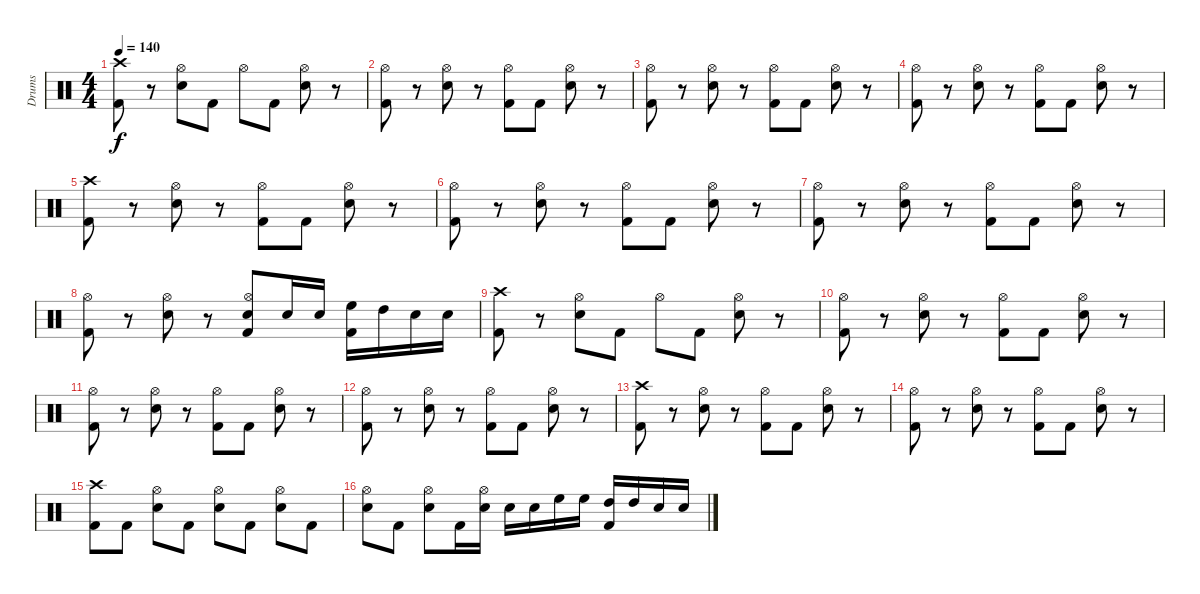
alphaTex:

\track ("Drums" "Drums") {instrument percussion}
\staff {score}
\articulation defaults
\ts (4 4)
\tempo 140
\clef neutral
\ks c
("Crash high (hit)" "Kick (hit) 2").8{dy f} r.8 ("Hi-Hat (open)" "Electric Snare (hit)").8 "Kick (hit) 2".8 "Hi-Hat (open)".8 "Kick (hit) 2".8 ("Hi-Hat (open)" "Electric Snare (hit)").8 r.8 |
("Hi-Hat (open)" "Kick (hit) 2").8 r.8 ("Hi-Hat (open)" "Electric Snare (hit)").8 r.8 ("Hi-Hat (open)" "Kick (hit) 2").8 "Kick (hit) 2".8 ("Hi-Hat (open)" "Electric Snare (hit)").8 r.8 |
("Hi-Hat (open)" "Kick (hit) 2").8 r.8 ("Hi-Hat (open)" "Electric Snare (hit)").8 r.8 ("Hi-Hat (open)" "Kick (hit) 2").8 "Kick (hit) 2".8 ("Hi-Hat (open)" "Electric Snare (hit)").8 r.8 |
("Hi-Hat (open)" "Kick (hit) 2").8 r.8 ("Hi-Hat (open)" "Electric Snare (hit)").8 r.8 ("Hi-Hat (open)" "Kick (hit) 2").8 "Kick (hit) 2".8 ("Hi-Hat (open)" "Electric Snare (hit)").8 r.8 |
("Crash high (hit)" "Kick (hit) 2").8 r.8 ("Hi-Hat (open)" "Electric Snare (hit)").8 r.8 ("Hi-Hat (open)" "Kick (hit) 2").8 "Kick (hit) 2".8 ("Hi-Hat (open)" "Electric Snare (hit)").8 r.8 |
("Hi-Hat (open)" "Kick (hit) 2").8 r.8 ("Hi-Hat (open)" "Electric Snare (hit)").8 r.8 ("Hi-Hat (open)" "Kick (hit) 2").8 "Kick (hit) 2".8 ("Hi-Hat (open)" "Electric Snare (hit)").8 r.8 |
("Hi-Hat (open)" "Kick (hit) 2").8 r.8 ("Hi-Hat (open)" "Electric Snare (hit)").8 r.8 ("Hi-Hat (open)" "Kick (hit) 2").8 "Kick (hit) 2".8 ("Hi-Hat (open)" "Electric Snare (hit)").8 r.8 |
("Hi-Hat (open)" "Kick (hit) 2").8 r.8 ("Hi-Hat (open)" "Electric Snare (hit)").8 r.8 ("Hi-Hat (open)" "Electric Snare (hit)" "Kick (hit) 2").8 "Electric Snare (hit)".16 "Electric Snare (hit)".16 ("High Floor Tom (hit)" "Kick (hit) 2").16 "High Tom (hit)".16 "Electric Snare (hit)".16 "Electric Snare (hit)".16 |
("Crash high (hit)" "Kick (hit) 2").8 r.8 ("Hi-Hat (open)" "Electric Snare (hit)").8 "Kick (hit) 2".8 "Hi-Hat (open)".8 "Kick (hit) 2".8 ("Hi-Hat (open)" "Electric Snare (hit)").8 r.8 |
("Hi-Hat (open)" "Kick (hit) 2").8 r.8 ("Hi-Hat (open)" "Electric Snare (hit)").8 r.8 ("Hi-Hat (open)" "Kick (hit) 2").8 "Kick (hit) 2".8 ("Hi-Hat (open)" "Electric Snare (hit)").8 r.8 |
("Hi-Hat (open)" "Kick (hit) 2").8 r.8 ("Hi-Hat (open)" "Electric Snare (hit)").8 r.8 ("Hi-Hat (open)" "Kick (hit) 2").8 "Kick (hit) 2".8 ("Hi-Hat (open)" "Electric Snare (hit)").8 r.8 |
("Hi-Hat (open)" "Kick (hit) 2").8 r.8 ("Hi-Hat (open)" "Electric Snare (hit)").8 r.8 ("Hi-Hat (open)" "Kick (hit) 2").8 "Kick (hit) 2".8 ("Hi-Hat (open)" "Electric Snare (hit)").8 r.8 |
("Crash high (hit)" "Kick (hit) 2").8 r.8 ("Hi-Hat (open)" "Electric Snare (hit)").8 r.8 ("Hi-Hat (open)" "Kick (hit) 2").8 "Kick (hit) 2".8 ("Hi-Hat (open)" "Electric Snare (hit)").8 r.8 |
("Hi-Hat (open)" "Kick (hit) 2").8 r.8 ("Hi-Hat (open)" "Electric Snare (hit)").8 r.8 ("Hi-Hat (open)" "Kick (hit) 2").8 "Kick (hit) 2".8 ("Hi-Hat (open)" "Electric Snare (hit)").8 r.8 |
("Crash high (hit)" "Kick (hit) 2").8 "Kick (hit) 2".8 ("Hi-Hat (open)" "Electric Snare (hit)").8 "Kick (hit) 2".8 ("Hi-Hat (open)" "Electric Snare (hit)").8 "Kick (hit) 2".8 ("Hi-Hat (open)" "Electric Snare (hit)").8 "Kick (hit) 2".8 |
("Hi-Hat (open)" "Electric Snare (hit)").8 "Kick (hit) 2".8 ("Hi-Hat (open)" "Electric Snare (hit)").8 "Kick (hit) 2".16 ("Hi-Hat (open)" "Electric Snare (hit)").16 "Electric Snare (hit)".16 "Electric Snare (hit)".16 "High Floor Tom (hit)".16 "High Floor Tom (hit)".16 ("High Tom (hit)" "Kick (hit) 2").16 "High Tom (hit)".16 "Electric Snare (hit)".16 "Electric Snare (hit)".16
